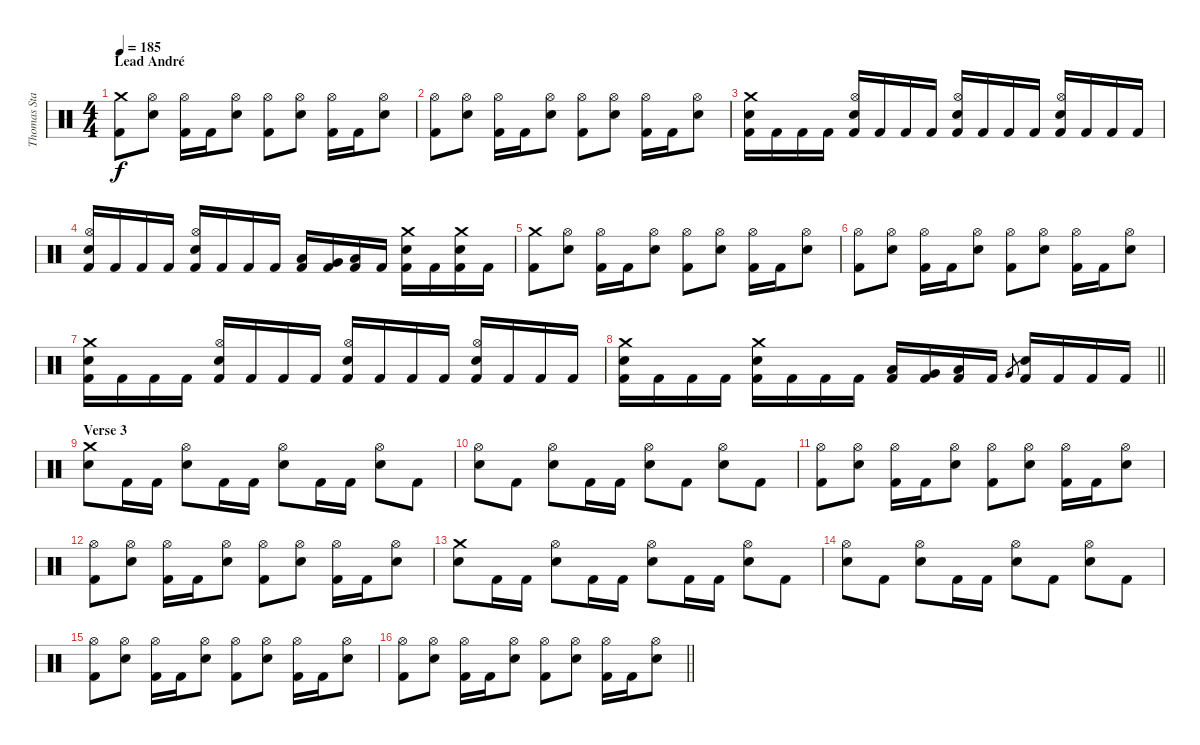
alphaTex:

\track ("Thomas Stauch" "Thomas Sta") {instrument percussion}
\staff {score}
\articulation defaults
\ts (4 4)
\section ("" "Lead André")
\tempo 185
\clef neutral
\ks c
("Crash medium (hit)" "Kick (hit) 2").8{dy f} ("Hi-Hat (open)" "Electric Snare (hit)").8 ("Hi-Hat (open)" "Kick (hit) 2").16 "Kick (hit) 2".16 ("Hi-Hat (open)" "Electric Snare (hit)").8 ("Hi-Hat (open)" "Kick (hit) 2").8 ("Hi-Hat (open)" "Electric Snare (hit)").8 ("Hi-Hat (open)" "Kick (hit) 2").16 "Kick (hit) 2".16 ("Hi-Hat (open)" "Electric Snare (hit)").8 |
("Hi-Hat (open)" "Kick (hit) 2").8 ("Hi-Hat (open)" "Electric Snare (hit)").8 ("Hi-Hat (open)" "Kick (hit) 2").16 "Kick (hit) 2".16 ("Hi-Hat (open)" "Electric Snare (hit)").8 ("Hi-Hat (open)" "Kick (hit) 2").8 ("Hi-Hat (open)" "Electric Snare (hit)").8 ("Hi-Hat (open)" "Kick (hit) 2").16 "Kick (hit) 2".16 ("Hi-Hat (open)" "Electric Snare (hit)").8 |
("Crash medium (hit)" "Electric Snare (hit)" "Kick (hit) 2").16 "Kick (hit) 2".16 "Kick (hit) 2".16 "Kick (hit) 2".16 ("Hi-Hat (open)" "Electric Snare (hit)" "Kick (hit) 2").16 "Kick (hit) 2".16 "Kick (hit) 2".16 "Kick (hit) 2".16 ("Hi-Hat (open)" "Electric Snare (hit)" "Kick (hit) 2").16 "Kick (hit) 2".16 "Kick (hit) 2".16 "Kick (hit) 2".16 ("Hi-Hat (open)" "Electric Snare (hit)" "Kick (hit) 2").16 "Kick (hit) 2".16 "Kick (hit) 2".16 "Kick (hit) 2".16 |
("Hi-Hat (open)" "Electric Snare (hit)" "Kick (hit) 2").16 "Kick (hit) 2".16 "Kick (hit) 2".16 "Kick (hit) 2".16 ("Hi-Hat (open)" "Electric Snare (hit)" "Kick (hit) 2").16 "Kick (hit) 2".16 "Kick (hit) 2".16 "Kick (hit) 2".16 ("Low Tom (hit)" "Kick (hit) 2").16 ("Very Low Tom (hit)" "Kick (hit) 2").16 ("Low Floor Tom (hit)" "Kick (hit) 2").16 "Kick (hit) 2".16 ("Crash medium (hit)" "Electric Snare (hit)" "Kick (hit) 2").16 "Kick (hit) 2".16 ("Crash medium (hit)" "Electric Snare (hit)" "Kick (hit) 2").16 "Kick (hit) 2".16 |
("Crash medium (hit)" "Kick (hit) 2").8 ("Hi-Hat (open)" "Electric Snare (hit)").8 ("Hi-Hat (open)" "Kick (hit) 2").16 "Kick (hit) 2".16 ("Hi-Hat (open)" "Electric Snare (hit)").8 ("Hi-Hat (open)" "Kick (hit) 2").8 ("Hi-Hat (open)" "Electric Snare (hit)").8 ("Hi-Hat (open)" "Kick (hit) 2").16 "Kick (hit) 2".16 ("Hi-Hat (open)" "Electric Snare (hit)").8 |
("Hi-Hat (open)" "Kick (hit) 2").8 ("Hi-Hat (open)" "Electric Snare (hit)").8 ("Hi-Hat (open)" "Kick (hit) 2").16 "Kick (hit) 2".16 ("Hi-Hat (open)" "Electric Snare (hit)").8 ("Hi-Hat (open)" "Kick (hit) 2").8 ("Hi-Hat (open)" "Electric Snare (hit)").8 ("Hi-Hat (open)" "Kick (hit) 2").16 "Kick (hit) 2".16 ("Hi-Hat (open)" "Electric Snare (hit)").8 |
("Crash medium (hit)" "Electric Snare (hit)" "Kick (hit) 2").16 "Kick (hit) 2".16 "Kick (hit) 2".16 "Kick (hit) 2".16 ("Hi-Hat (open)" "Electric Snare (hit)" "Kick (hit) 2").16 "Kick (hit) 2".16 "Kick (hit) 2".16 "Kick (hit) 2".16 ("Hi-Hat (open)" "Electric Snare (hit)" "Kick (hit) 2").16 "Kick (hit) 2".16 "Kick (hit) 2".16 "Kick (hit) 2".16 ("Hi-Hat (open)" "Electric Snare (hit)" "Kick (hit) 2").16 "Kick (hit) 2".16 "Kick (hit) 2".16 "Kick (hit) 2".16 |
\barLineRight lightlight
("Crash medium (hit)" "Electric Snare (hit)" "Kick (hit) 2").16 "Kick (hit) 2".16 "Kick (hit) 2".16 "Kick (hit) 2".16 ("Crash medium (hit)" "Electric Snare (hit)" "Kick (hit) 2").16 "Kick (hit) 2".16 "Kick (hit) 2".16 "Kick (hit) 2".16 ("Low Tom (hit)" "Kick (hit) 2").16 ("Very Low Tom (hit)" "Kick (hit) 2").16 ("Low Floor Tom (hit)" "Kick (hit) 2").16 "Kick (hit) 2".16 "Very Low Tom (hit)".8{gr} ("Electric Snare (hit)" "Kick (hit) 2").16 "Kick (hit) 2".16 "Kick (hit) 2".16 "Kick (hit) 2".16 |
\section ("" "Verse 3")
("Crash medium (hit)" "Electric Snare (hit)").8 "Kick (hit) 2".16 "Kick (hit) 2".16 ("Hi-Hat (open)" "Electric Snare (hit)").8 "Kick (hit) 2".16 "Kick (hit) 2".16 ("Hi-Hat (open)" "Electric Snare (hit)").8 "Kick (hit) 2".16 "Kick (hit) 2".16 ("Hi-Hat (open)" "Electric Snare (hit)").8 "Kick (hit) 2".8 |
("Hi-Hat (open)" "Electric Snare (hit)").8 "Kick (hit) 2".8 ("Hi-Hat (open)" "Electric Snare (hit)").8 "Kick (hit) 2".16 "Kick (hit) 2".16 ("Hi-Hat (open)" "Electric Snare (hit)").8 "Kick (hit) 2".8 ("Hi-Hat (open)" "Electric Snare (hit)").8 "Kick (hit) 2".8 |
("Hi-Hat (open)" "Kick (hit) 2").8 ("Hi-Hat (open)" "Electric Snare (hit)").8 ("Hi-Hat (open)" "Kick (hit) 2").16 "Kick (hit) 2".16 ("Hi-Hat (open)" "Electric Snare (hit)").8 ("Hi-Hat (open)" "Kick (hit) 2").8 ("Hi-Hat (open)" "Electric Snare (hit)").8 ("Hi-Hat (open)" "Kick (hit) 2").16 "Kick (hit) 2".16 ("Hi-Hat (open)" "Electric Snare (hit)").8 |
("Hi-Hat (open)" "Kick (hit) 2").8 ("Hi-Hat (open)" "Electric Snare (hit)").8 ("Hi-Hat (open)" "Kick (hit) 2").16 "Kick (hit) 2".16 ("Hi-Hat (open)" "Electric Snare (hit)").8 ("Hi-Hat (open)" "Kick (hit) 2").8 ("Hi-Hat (open)" "Electric Snare (hit)").8 ("Hi-Hat (open)" "Kick (hit) 2").16 "Kick (hit) 2".16 ("Hi-Hat (open)" "Electric Snare (hit)").8 |
("Crash medium (hit)" "Electric Snare (hit)").8 "Kick (hit) 2".16 "Kick (hit) 2".16 ("Hi-Hat (open)" "Electric Snare (hit)").8 "Kick (hit) 2".16 "Kick (hit) 2".16 ("Hi-Hat (open)" "Electric Snare (hit)").8 "Kick (hit) 2".16 "Kick (hit) 2".16 ("Hi-Hat (open)" "Electric Snare (hit)").8 "Kick (hit) 2".8 |
("Hi-Hat (open)" "Electric Snare (hit)").8 "Kick (hit) 2".8 ("Hi-Hat (open)" "Electric Snare (hit)").8 "Kick (hit) 2".16 "Kick (hit) 2".16 ("Hi-Hat (open)" "Electric Snare (hit)").8 "Kick (hit) 2".8 ("Hi-Hat (open)" "Electric Snare (hit)").8 "Kick (hit) 2".8 |
("Hi-Hat (open)" "Kick (hit) 2").8 ("Hi-Hat (open)" "Electric Snare (hit)").8 ("Hi-Hat (open)" "Kick (hit) 2").16 "Kick (hit) 2".16 ("Hi-Hat (open)" "Electric Snare (hit)").8 ("Hi-Hat (open)" "Kick (hit) 2").8 ("Hi-Hat (open)" "Electric Snare (hit)").8 ("Hi-Hat (open)" "Kick (hit) 2").16 "Kick (hit) 2".16 ("Hi-Hat (open)" "Electric Snare (hit)").8 |
\barLineRight lightlight
("Hi-Hat (open)" "Kick (hit) 2").8 ("Hi-Hat (open)" "Electric Snare (hit)").8 ("Hi-Hat (open)" "Kick (hit) 2").16 "Kick (hit) 2".16 ("Hi-Hat (open)" "Electric Snare (hit)").8 ("Hi-Hat (open)" "Kick (hit) 2").8 ("Hi-Hat (open)" "Electric Snare (hit)").8 ("Hi-Hat (open)" "Kick (hit) 2").16 "Kick (hit) 2".16 ("Hi-Hat (open)" "Electric Snare (hit)").8
